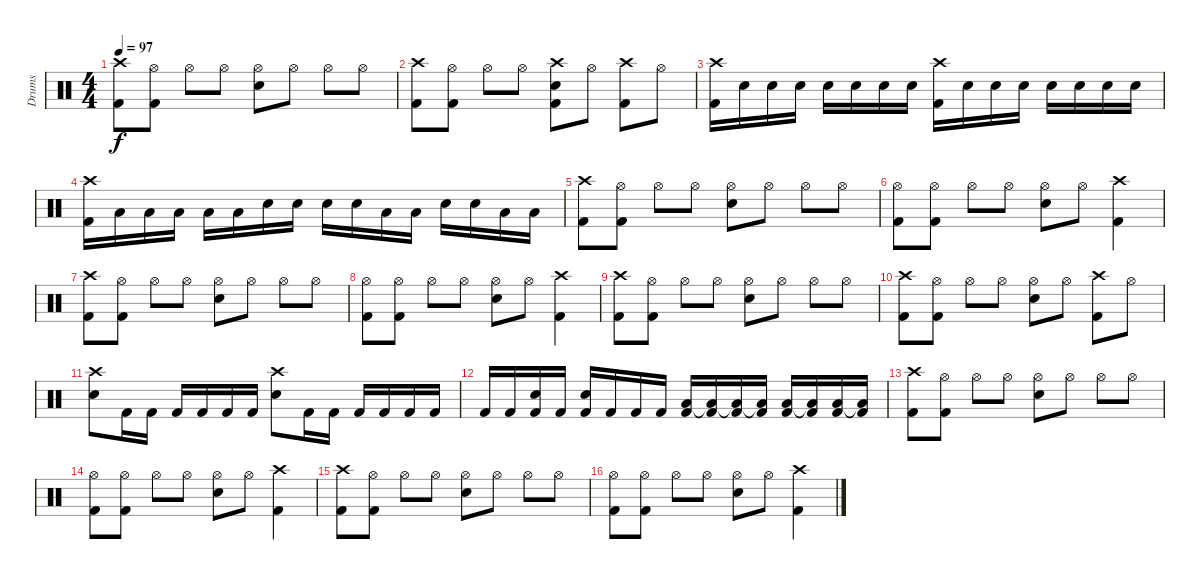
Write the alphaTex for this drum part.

\track ("Drums" "Drums") {solo instrument percussion}
\staff {score}
\articulation defaults
\ts (4 4)
\tempo 97
\clef neutral
\ks c
("Crash high (hit)" "Kick (hit) 2").8{dy f} ("Hi-Hat (open)" "Kick (hit) 2").8 "Hi-Hat (open)".8 "Hi-Hat (open)".8 ("Hi-Hat (open)" "Electric Snare (hit)").8 "Hi-Hat (open)".8 "Hi-Hat (open)".8 "Hi-Hat (open)".8 |
("Crash high (hit)" "Kick (hit) 2").8 ("Hi-Hat (open)" "Kick (hit) 2").8 "Hi-Hat (open)".8 "Hi-Hat (open)".8 ("Crash high (hit)" "Electric Snare (hit)" "Kick (hit) 2").8 "Hi-Hat (open)".8 ("Crash high (hit)" "Kick (hit) 2").8 "Hi-Hat (open)".8 |
("Crash high (hit)" "Kick (hit) 2").16 "Electric Snare (hit)".16 "Electric Snare (hit)".16 "Electric Snare (hit)".16 "Electric Snare (hit)".16 "Electric Snare (hit)".16 "Electric Snare (hit)".16 "Electric Snare (hit)".16 ("Crash high (hit)" "Kick (hit) 2").16 "Electric Snare (hit)".16 "Electric Snare (hit)".16 "Electric Snare (hit)".16 "Electric Snare (hit)".16 "Electric Snare (hit)".16 "Electric Snare (hit)".16 "Electric Snare (hit)".16 |
("Crash high (hit)" "Kick (hit) 2").16 "Low Floor Tom (hit)".16 "Low Floor Tom (hit)".16 "Low Floor Tom (hit)".16 "Low Floor Tom (hit)".16 "Low Floor Tom (hit)".16 "Electric Snare (hit)".16 "Electric Snare (hit)".16 "Electric Snare (hit)".16 "Electric Snare (hit)".16 "Low Floor Tom (hit)".16 "Low Floor Tom (hit)".16 "Electric Snare (hit)".16 "Electric Snare (hit)".16 "Low Floor Tom (hit)".16 "Low Floor Tom (hit)".16 |
("Crash high (hit)" "Kick (hit) 2").8 ("Hi-Hat (open)" "Kick (hit) 2").8 "Hi-Hat (open)".8 "Hi-Hat (open)".8 ("Hi-Hat (open)" "Electric Snare (hit)").8 "Hi-Hat (open)".8 "Hi-Hat (open)".8 "Hi-Hat (open)".8 |
("Hi-Hat (open)" "Kick (hit) 2").8 ("Hi-Hat (open)" "Kick (hit) 2").8 "Hi-Hat (open)".8 "Hi-Hat (open)".8 ("Hi-Hat (open)" "Electric Snare (hit)").8 "Hi-Hat (open)".8 ("Crash high (hit)" "Kick (hit) 2").4 |
("Crash high (hit)" "Kick (hit) 2").8 ("Hi-Hat (open)" "Kick (hit) 2").8 "Hi-Hat (open)".8 "Hi-Hat (open)".8 ("Hi-Hat (open)" "Electric Snare (hit)").8 "Hi-Hat (open)".8 "Hi-Hat (open)".8 "Hi-Hat (open)".8 |
("Hi-Hat (open)" "Kick (hit) 2").8 ("Hi-Hat (open)" "Kick (hit) 2").8 "Hi-Hat (open)".8 "Hi-Hat (open)".8 ("Hi-Hat (open)" "Electric Snare (hit)").8 "Hi-Hat (open)".8 ("Crash high (hit)" "Kick (hit) 2").4 |
("Crash high (hit)" "Kick (hit) 2").8 ("Hi-Hat (open)" "Kick (hit) 2").8 "Hi-Hat (open)".8 "Hi-Hat (open)".8 ("Hi-Hat (open)" "Electric Snare (hit)").8 "Hi-Hat (open)".8 "Hi-Hat (open)".8 "Hi-Hat (open)".8 |
("Crash high (hit)" "Kick (hit) 2").8 ("Hi-Hat (open)" "Kick (hit) 2").8 "Hi-Hat (open)".8 "Hi-Hat (open)".8 ("Hi-Hat (open)" "Electric Snare (hit)").8 "Hi-Hat (open)".8 ("Crash high (hit)" "Kick (hit) 2").8 "Hi-Hat (open)".8 |
("Crash high (hit)" "Electric Snare (hit)").8 "Kick (hit) 2".16 "Kick (hit) 2".16 "Kick (hit) 2".16 "Kick (hit) 2".16 "Kick (hit) 2".16 "Kick (hit) 2".16 ("Crash high (hit)" "Electric Snare (hit)").8 "Kick (hit) 2".16 "Kick (hit) 2".16 "Kick (hit) 2".16 "Kick (hit) 2".16 "Kick (hit) 2".16 "Kick (hit) 2".16 |
"Kick (hit) 2".16 "Kick (hit) 2".16 ("Electric Snare (hit)" "Kick (hit) 2").16 "Kick (hit) 2".16 ("Electric Snare (hit)" "Kick (hit) 2").16 "Kick (hit) 2".16 "Kick (hit) 2".16 "Kick (hit) 2".16 ("Low Floor Tom (hit)" "Kick (hit) 2").16 ("Low Floor Tom (hit)"{t} "Kick (hit) 2").16 ("Low Floor Tom (hit)"{t} "Kick (hit) 2").16 ("Low Floor Tom (hit)"{t} "Kick (hit) 2").16 ("Low Floor Tom (hit)" "Kick (hit) 2").16 ("Low Floor Tom (hit)"{t} "Kick (hit) 2").16 ("Low Floor Tom (hit)" "Kick (hit) 2").16 ("Low Floor Tom (hit)"{t} "Kick (hit) 2").16 |
("Crash high (hit)" "Kick (hit) 2").8 ("Hi-Hat (open)" "Kick (hit) 2").8 "Hi-Hat (open)".8 "Hi-Hat (open)".8 ("Hi-Hat (open)" "Electric Snare (hit)").8 "Hi-Hat (open)".8 "Hi-Hat (open)".8 "Hi-Hat (open)".8 |
("Hi-Hat (open)" "Kick (hit) 2").8 ("Hi-Hat (open)" "Kick (hit) 2").8 "Hi-Hat (open)".8 "Hi-Hat (open)".8 ("Hi-Hat (open)" "Electric Snare (hit)").8 "Hi-Hat (open)".8 ("Crash high (hit)" "Kick (hit) 2").4 |
("Crash high (hit)" "Kick (hit) 2").8 ("Hi-Hat (open)" "Kick (hit) 2").8 "Hi-Hat (open)".8 "Hi-Hat (open)".8 ("Hi-Hat (open)" "Electric Snare (hit)").8 "Hi-Hat (open)".8 "Hi-Hat (open)".8 "Hi-Hat (open)".8 |
("Hi-Hat (open)" "Kick (hit) 2").8 ("Hi-Hat (open)" "Kick (hit) 2").8 "Hi-Hat (open)".8 "Hi-Hat (open)".8 ("Hi-Hat (open)" "Electric Snare (hit)").8 "Hi-Hat (open)".8 ("Crash high (hit)" "Kick (hit) 2").4
